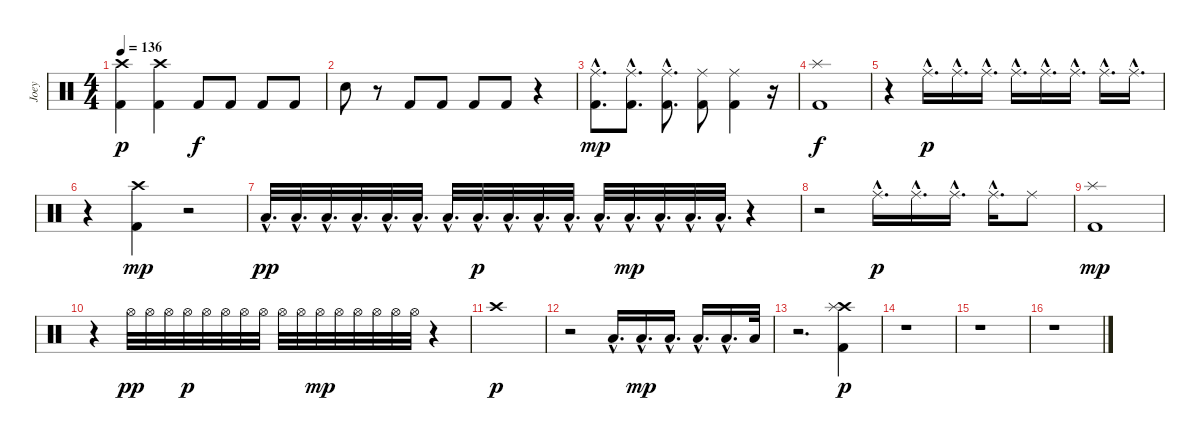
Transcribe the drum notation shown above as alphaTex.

\track ("Joey" "Joey") {instrument percussion}
\staff {score}
\articulation defaults
\ts (4 4)
\tempo 136
\clef neutral
\ks c
("Crash high (hit)" "Kick (hit) 2").4{dy p} ("Crash high (hit)" "Kick (hit) 2").4 "Kick (hit) 2".8{dy f} "Kick (hit) 2".8 "Kick (hit) 2".8 "Kick (hit) 2".8 |
"Electric Snare (hit)".8 r.8 "Kick (hit) 2".8 "Kick (hit) 2".8 "Kick (hit) 2".8 "Kick (hit) 2".8 r.4 |
("Ride (middle)"{hac} "Kick (hit) 2"{hac}).8{d dy mp} ("Ride (middle)"{hac} "Kick (hit) 2"{hac}).8{d} ("Ride (middle)"{hac} "Kick (hit) 2"{hac}).8{d} ("Ride (middle)" "Kick (hit) 2").8 ("Ride (middle)" "Kick (hit) 2").4 r.16 |
("Splash (hit)" "Kick (hit) 2").1{dy f} |
r.4 "Ride (middle)"{hac}.16{d dy p} "Ride (middle)"{hac}.16{d} "Ride (middle)"{hac}.16{d} "Ride (middle)"{hac}.16{d} "Ride (middle)"{hac}.16{d} "Ride (middle)"{hac}.16{d} "Ride (middle)"{hac}.16{d} "Ride (middle)"{hac}.16{d} |
r.4 ("Crash high (hit)" "Kick (hit) 2").4{dy mp} r.2 |
"Low Tom (hit)"{hac}.32{d dy pp} "Low Tom (hit)"{hac}.32{d} "Low Tom (hit)"{hac}.32{d} "Low Tom (hit)"{hac}.32{d} "Low Tom (hit)"{hac}.32{d} "Low Tom (hit)"{hac}.32{d} "Low Tom (hit)"{hac}.32{d} "Low Tom (hit)"{hac}.32{d dy p} "Low Tom (hit)"{hac}.32{d} "Low Tom (hit)"{hac}.32{d} "Low Tom (hit)"{hac}.32{d} "Low Tom (hit)"{hac}.32{d} "Low Tom (hit)"{hac}.32{d dy mp} "Low Tom (hit)"{hac}.32{d} "Low Tom (hit)"{hac}.32{d} "Low Tom (hit)"{hac}.32{d} r.4 |
r.2 "Ride (middle)"{hac}.16{d dy p} "Ride (middle)"{hac}.16{d} "Ride (middle)"{hac}.16{d} "Ride (middle)"{hac}.16{d} "Ride (middle)".8 |
("Splash (hit)" "Kick (hit) 2").1{dy mp} |
r.4 "Hi-Hat (open)".32{dy pp} "Hi-Hat (open)".32 "Hi-Hat (open)".32 "Hi-Hat (open)".32{dy p} "Hi-Hat (open)".32 "Hi-Hat (open)".32 "Hi-Hat (open)".32 "Hi-Hat (open)".32 "Hi-Hat (open)".32 "Hi-Hat (open)".32 "Hi-Hat (open)".32{dy mp} "Hi-Hat (open)".32 "Hi-Hat (open)".32 "Hi-Hat (open)".32 "Hi-Hat (open)".32 "Hi-Hat (open)".32 r.4 |
"Crash high (hit)".1{dy p} |
r.2 "Low Tom (hit)"{hac}.16{d} "Low Tom (hit)"{hac}.16{d dy mp} "Low Tom (hit)"{hac}.16{d} "Low Tom (hit)"{hac}.16{d} "Low Tom (hit)"{hac}.16{d} "Low Tom (hit)".32 |
r.2{d} ("Crash high (hit)" "Splash (hit)" "Kick (hit) 2").4{dy p} |
r.1 |
r.1 |
r.1
